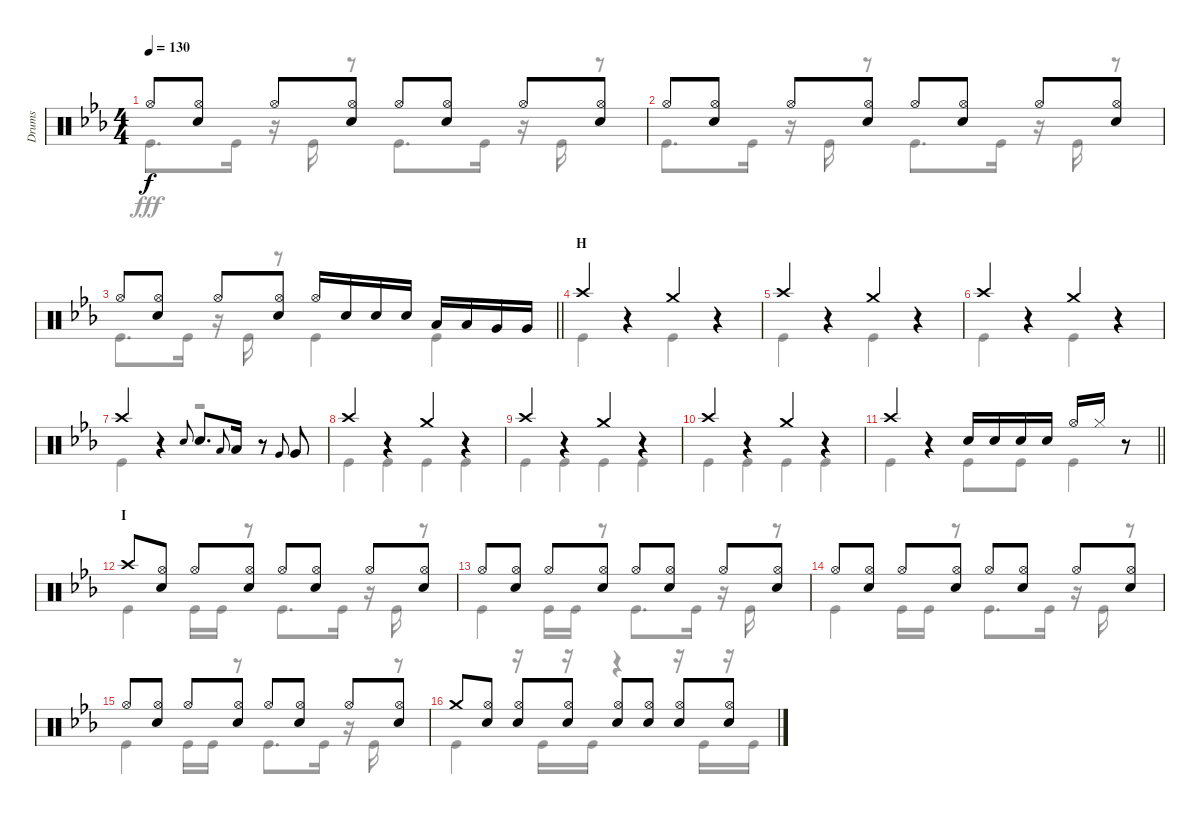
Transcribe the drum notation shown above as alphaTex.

\track ("Drums" "Drums") {instrument percussion}
\staff {score}
\articulation defaults
\voice
\ts (4 4)
\tempo 130
\clef neutral
\ks eb "Hi-Hat (open)".8{dy f}
("Hi-Hat (open)" "Snare (hit) 2").8 "Hi-Hat (open)".8 ("Hi-Hat (open)" "Snare (hit) 2").8 "Hi-Hat (open)".8 ("Hi-Hat (open)" "Snare (hit) 2").8 "Hi-Hat (open)".8 ("Hi-Hat (open)" "Snare (hit) 2").8 |
"Hi-Hat (open)".8 ("Hi-Hat (open)" "Snare (hit) 2").8 "Hi-Hat (open)".8 ("Hi-Hat (open)" "Snare (hit) 2").8 "Hi-Hat (open)".8 ("Hi-Hat (open)" "Snare (hit) 2").8 "Hi-Hat (open)".8 ("Hi-Hat (open)" "Snare (hit) 2").8 |
\barLineRight lightlight "Hi-Hat (open)".8
("Hi-Hat (open)" "Snare (hit) 2").8 "Hi-Hat (open)".8 ("Hi-Hat (open)" "Snare (hit) 2").8 "Hi-Hat (open)".16 "Snare (hit) 2".16 "Snare (hit) 2".16 "Snare (hit) 2".16 "Low Tom (hit)".16 "Low Tom (hit)".16 "Very Low Tom (hit)".16 "Very Low Tom (hit)".16 |
\section ("" "H")
"Crash high (hit)".4 r.4 "Crash medium (hit)".4 r.4 |
"Crash high (hit)".4 r.4 "Crash medium (hit)".4 r.4 |
"Crash high (hit)".4 r.4 "Crash medium (hit)".4 r.4 |
"Crash high (hit)".4 r.4 "Snare (hit) 2".8{gr onbeat} "Snare (hit) 2".8{d} "Low Tom (hit)".8{gr onbeat} "Low Tom (hit)".16 r.8 "Very Low Tom (hit)".8{gr onbeat} "Very Low Tom (hit)".8 |
"Crash high (hit)".4 r.4 "Crash medium (hit)".4 r.4 |
"Crash high (hit)".4 r.4 "Crash medium (hit)".4 r.4 |
"Crash high (hit)".4 r.4 "Crash medium (hit)".4 r.4 |
\barLineRight lightlight "Crash high (hit)".4
r.4 "Snare (hit) 2".16 "Snare (hit) 2".16 "Snare (hit) 2".16 "Snare (hit) 2".16 "Hi-Hat (open)".16 "Hi-Hat (closed)".16 r.8 |
\section ("" "I")
"Crash high (hit)".8 ("Hi-Hat (open)" "Snare (hit) 2").8 "Hi-Hat (open)".8 ("Hi-Hat (open)" "Snare (hit) 2").8 "Hi-Hat (open)".8 ("Hi-Hat (open)" "Snare (hit) 2").8 "Hi-Hat (open)".8 ("Hi-Hat (open)" "Snare (hit) 2").8 |
"Hi-Hat (open)".8 ("Hi-Hat (open)" "Snare (hit) 2").8 "Hi-Hat (open)".8 ("Hi-Hat (open)" "Snare (hit) 2").8 "Hi-Hat (open)".8 ("Hi-Hat (open)" "Snare (hit) 2").8 "Hi-Hat (open)".8 ("Hi-Hat (open)" "Snare (hit) 2").8 |
"Hi-Hat (open)".8 ("Hi-Hat (open)" "Snare (hit) 2").8 "Hi-Hat (open)".8 ("Hi-Hat (open)" "Snare (hit) 2").8 "Hi-Hat (open)".8 ("Hi-Hat (open)" "Snare (hit) 2").8 "Hi-Hat (open)".8 ("Hi-Hat (open)" "Snare (hit) 2").8 |
"Hi-Hat (open)".8 ("Hi-Hat (open)" "Snare (hit) 2").8 "Hi-Hat (open)".8 ("Hi-Hat (open)" "Snare (hit) 2").8 "Hi-Hat (open)".8 ("Hi-Hat (open)" "Snare (hit) 2").8 "Hi-Hat (open)".8 ("Hi-Hat (open)" "Snare (hit) 2").8 |
"Crash medium (hit)".8 ("Hi-Hat (open)" "Snare (hit) 2").8 ("Hi-Hat (open)" "Snare (hit) 2").8 ("Hi-Hat (open)" "Snare (hit) 2").8 ("Hi-Hat (open)" "Snare (hit) 2").8 ("Hi-Hat (open)" "Snare (hit) 2").8 ("Hi-Hat (open)" "Snare (hit) 2").8 ("Hi-Hat (open)" "Snare (hit) 2").8
\voice
\clef neutral
\ottava regular
\simile none
\ks eb "Kick (hit)".8{d dy fff} "Kick (hit)".16
r.16 "Kick (hit)".16 r.8 "Kick (hit)".8{d} "Kick (hit)".16 r.16 "Kick (hit)".16 r.8 |
"Kick (hit)".8{d} "Kick (hit)".16 r.16 "Kick (hit)".16 r.8 "Kick (hit)".8{d} "Kick (hit)".16 r.16 "Kick (hit)".16 r.8 |
\barLineRight lightlight "Kick (hit)".8{d} "Kick (hit)".16
r.16 "Kick (hit)".16 r.8 "Kick (hit)".4 "Kick (hit)".4 |
"Kick (hit)".4 r.4 "Kick (hit)".4 r.4 |
"Kick (hit)".4 r.4 "Kick (hit)".4 r.4 |
"Kick (hit)".4 r.4 "Kick (hit)".4 r.4 |
"Kick (hit)".4 r.4 r.2 |
"Kick (hit)".4 "Kick (hit)".4 "Kick (hit)".4 "Kick (hit)".4 |
"Kick (hit)".4 "Kick (hit)".4 "Kick (hit)".4 "Kick (hit)".4 |
"Kick (hit)".4 "Kick (hit)".4 "Kick (hit)".4 "Kick (hit)".4 |
\barLineRight lightlight "Kick (hit)".4
r.4 "Kick (hit)".8 "Kick (hit)".8 "Kick (hit)".4 |
"Kick (hit)".4 "Kick (hit)".16 "Kick (hit)".16 r.8 "Kick (hit)".8{d} "Kick (hit)".16 r.16 "Kick (hit)".16 r.8 |
"Kick (hit)".4 "Kick (hit)".16 "Kick (hit)".16 r.8 "Kick (hit)".8{d} "Kick (hit)".16 r.16 "Kick (hit)".16 r.8 |
"Kick (hit)".4 "Kick (hit)".16 "Kick (hit)".16 r.8 "Kick (hit)".8{d} "Kick (hit)".16 r.16 "Kick (hit)".16 r.8 |
"Kick (hit)".4 "Kick (hit)".16 "Kick (hit)".16 r.8 "Kick (hit)".8{d} "Kick (hit)".16 r.16 "Kick (hit)".16 r.8 |
"Kick (hit)".4 r.16 "Kick (hit)".16 r.16 "Kick (hit)".16 r.4 r.16 "Kick (hit)".16 r.16 "Kick (hit)".16
